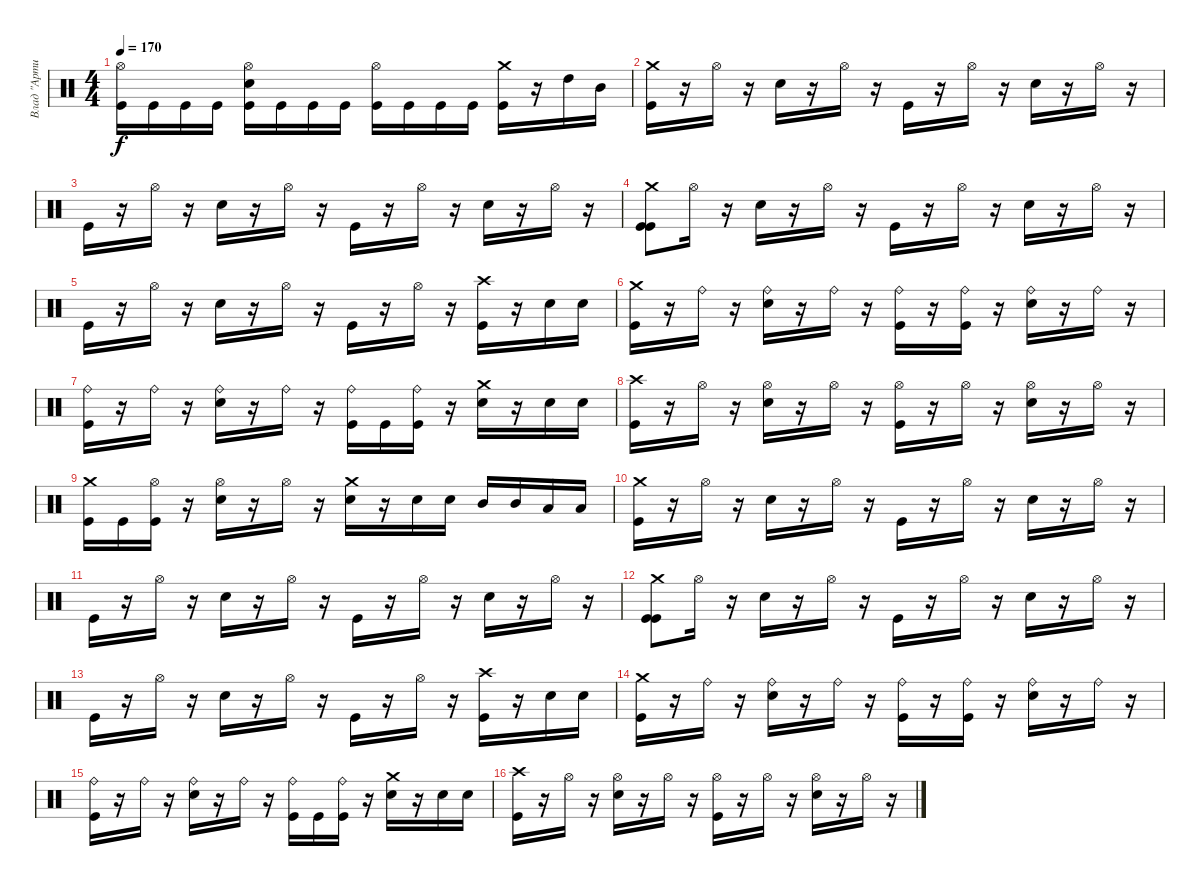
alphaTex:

\track ("Влад \"Артист\"" "Влад \"Арти") {instrument percussion}
\staff {score}
\articulation defaults
\ts (4 4)
\tempo 170
\clef neutral
\ks c
("Hi-Hat (open)" "Kick (hit)").16{dy f} "Kick (hit)".16 "Kick (hit)".16 "Kick (hit)".16 ("Snare (hit) 2" "Hi-Hat (open)" "Kick (hit)").16 "Kick (hit)".16 "Kick (hit)".16 "Kick (hit)".16 ("Hi-Hat (open)" "Kick (hit)").16 "Kick (hit)".16 "Kick (hit)".16 "Kick (hit)".16 ("Crash medium (hit)" "Kick (hit)").16 r.16 "High Tom (hit)".16 "Mid Tom (hit)".16 |
("Crash medium (hit)" "Kick (hit)").16 r.16 "Hi-Hat (open)".16 r.16 "Snare (hit) 2".16 r.16 "Hi-Hat (open)".16 r.16 "Kick (hit)".16 r.16 "Hi-Hat (open)".16 r.16 "Snare (hit) 2".16 r.16 "Hi-Hat (open)".16 r.16 |
"Kick (hit)".16 r.16 "Hi-Hat (open)".16 r.16 "Snare (hit) 2".16 r.16 "Hi-Hat (open)".16 r.16 "Kick (hit)".16 r.16 "Hi-Hat (open)".16 r.16 "Snare (hit) 2".16 r.16 "Hi-Hat (open)".16 r.16 |
("Kick (hit)" "Crash medium (hit)" "Kick (hit)").8 "Hi-Hat (open)".16 r.16 "Snare (hit) 2".16 r.16 "Hi-Hat (open)".16 r.16 "Kick (hit)".16 r.16 "Hi-Hat (open)".16 r.16 "Snare (hit) 2".16 r.16 "Hi-Hat (open)".16 r.16 |
"Kick (hit)".16 r.16 "Hi-Hat (open)".16 r.16 "Snare (hit) 2".16 r.16 "Hi-Hat (open)".16 r.16 "Kick (hit)".16 r.16 "Hi-Hat (open)".16 r.16 ("Kick (hit)" "Crash high (hit)").16 r.16 "Snare (hit) 2".16 "Snare (hit) 2".16 |
("Crash medium (hit)" "Kick (hit)").16 r.16 "Ride (bell)".16 r.16 ("Snare (hit) 2" "Ride (bell)").16 r.16 "Ride (bell)".16 r.16 ("Kick (hit)" "Ride (bell)").16 r.16 ("Kick (hit)" "Ride (bell)").16 r.16 ("Snare (hit) 2" "Ride (bell)").16 r.16 "Ride (bell)".16 r.16 |
("Kick (hit)" "Ride (bell)").16 r.16 "Ride (bell)".16 r.16 ("Snare (hit) 2" "Ride (bell)").16 r.16 "Ride (bell)".16 r.16 ("Kick (hit)" "Ride (bell)").16 "Kick (hit)".16 ("Kick (hit)" "Ride (bell)").16 r.16 ("Snare (hit) 2" "Crash medium (hit)").16 r.16 "Snare (hit) 2".16 "Snare (hit) 2".16 |
("Kick (hit)" "Crash high (hit)").16 r.16 "Hi-Hat (open)".16 r.16 ("Hi-Hat (open)" "Snare (hit) 2").16 r.16 "Hi-Hat (open)".16 r.16 ("Hi-Hat (open)" "Kick (hit)").16 r.16 "Hi-Hat (open)".16 r.16 ("Hi-Hat (open)" "Snare (hit) 2").16 r.16 "Hi-Hat (open)".16 r.16 |
("Crash medium (hit)" "Kick (hit)").16 "Kick (hit)".16 ("Hi-Hat (open)" "Kick (hit)").16 r.16 ("Hi-Hat (open)" "Snare (hit) 2").16 r.16 "Hi-Hat (open)".16 r.16 ("Snare (hit) 2" "Crash medium (hit)").16 r.16 "Snare (hit) 2".16 "Snare (hit) 2".16 "Mid Tom (hit)".16 "Mid Tom (hit)".16 "Low Tom (hit)".16 "Low Tom (hit)".16 |
("Crash medium (hit)" "Kick (hit)").16 r.16 "Hi-Hat (open)".16 r.16 "Snare (hit) 2".16 r.16 "Hi-Hat (open)".16 r.16 "Kick (hit)".16 r.16 "Hi-Hat (open)".16 r.16 "Snare (hit) 2".16 r.16 "Hi-Hat (open)".16 r.16 |
"Kick (hit)".16 r.16 "Hi-Hat (open)".16 r.16 "Snare (hit) 2".16 r.16 "Hi-Hat (open)".16 r.16 "Kick (hit)".16 r.16 "Hi-Hat (open)".16 r.16 "Snare (hit) 2".16 r.16 "Hi-Hat (open)".16 r.16 |
("Kick (hit)" "Crash medium (hit)" "Kick (hit)").8 "Hi-Hat (open)".16 r.16 "Snare (hit) 2".16 r.16 "Hi-Hat (open)".16 r.16 "Kick (hit)".16 r.16 "Hi-Hat (open)".16 r.16 "Snare (hit) 2".16 r.16 "Hi-Hat (open)".16 r.16 |
"Kick (hit)".16 r.16 "Hi-Hat (open)".16 r.16 "Snare (hit) 2".16 r.16 "Hi-Hat (open)".16 r.16 "Kick (hit)".16 r.16 "Hi-Hat (open)".16 r.16 ("Kick (hit)" "Crash high (hit)").16 r.16 "Snare (hit) 2".16 "Snare (hit) 2".16 |
("Crash medium (hit)" "Kick (hit)").16 r.16 "Ride (bell)".16 r.16 ("Snare (hit) 2" "Ride (bell)").16 r.16 "Ride (bell)".16 r.16 ("Kick (hit)" "Ride (bell)").16 r.16 ("Kick (hit)" "Ride (bell)").16 r.16 ("Snare (hit) 2" "Ride (bell)").16 r.16 "Ride (bell)".16 r.16 |
("Kick (hit)" "Ride (bell)").16 r.16 "Ride (bell)".16 r.16 ("Snare (hit) 2" "Ride (bell)").16 r.16 "Ride (bell)".16 r.16 ("Kick (hit)" "Ride (bell)").16 "Kick (hit)".16 ("Kick (hit)" "Ride (bell)").16 r.16 ("Snare (hit) 2" "Crash medium (hit)").16 r.16 "Snare (hit) 2".16 "Snare (hit) 2".16 |
("Kick (hit)" "Crash high (hit)").16 r.16 "Hi-Hat (open)".16 r.16 ("Hi-Hat (open)" "Snare (hit) 2").16 r.16 "Hi-Hat (open)".16 r.16 ("Hi-Hat (open)" "Kick (hit)").16 r.16 "Hi-Hat (open)".16 r.16 ("Hi-Hat (open)" "Snare (hit) 2").16 r.16 "Hi-Hat (open)".16 r.16
